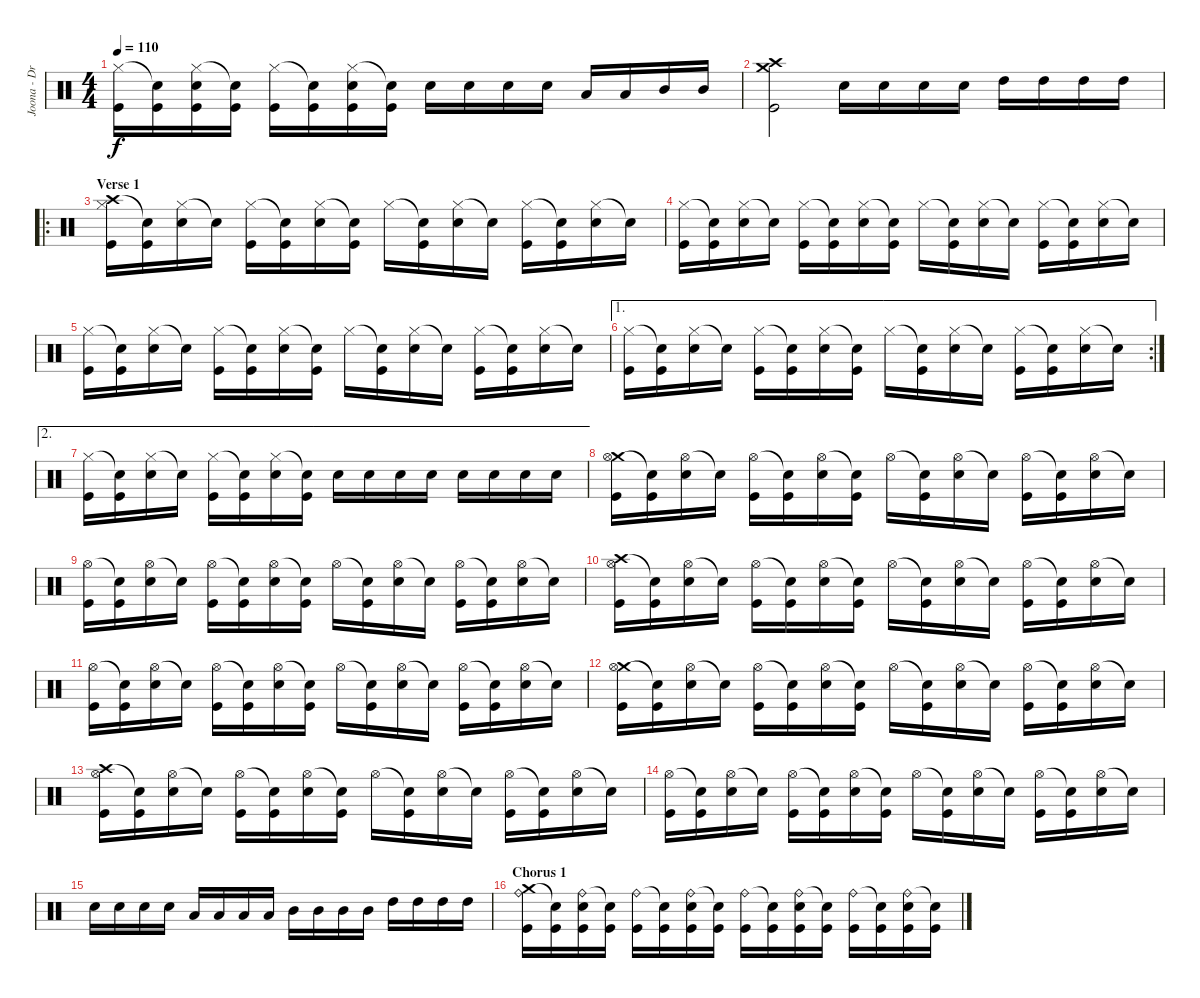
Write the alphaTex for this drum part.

\track ("Joona - Drums" "Joona - Dr") {instrument percussion}
\staff {score}
\articulation defaults
\ts (4 4)
\tempo 110
\clef neutral
\ks c
("Hi-Hat (closed)" "Kick (hit)").16{dy f} ("Snare (hit)"{t} "Kick (hit)").16 ("Hi-Hat (closed)" "Snare (hit) 2" "Kick (hit)").16 ("Snare (hit)"{t} "Kick (hit)").16 ("Hi-Hat (closed)" "Kick (hit)").16 ("Snare (hit)"{t} "Kick (hit)").16 ("Hi-Hat (closed)" "Snare (hit) 2" "Kick (hit)").16 ("Snare (hit)"{t} "Kick (hit)").16 "Snare (hit) 2".16 "Snare (hit) 2".16 "Snare (hit) 2".16 "Snare (hit) 2".16 "Low Tom (hit)".16 "Low Tom (hit)".16 "Mid Tom (hit)".16 "Mid Tom (hit)".16 |
("Crash medium (hit)" "Crash high (hit)" "Kick (hit)").2 "Snare (hit) 2".16 "Snare (hit) 2".16 "Snare (hit) 2".16 "Snare (hit) 2".16 "High Tom (hit)".16 "High Tom (hit)".16 "High Tom (hit)".16 "High Tom (hit)".16 |
\ro
\section ("" "Verse 1")
("Crash high (hit)" "Hi-Hat (closed)" "Kick (hit)").16 ("Snare (hit)"{t} "Kick (hit)").16 ("Hi-Hat (closed)" "Snare (hit) 2").16 "Snare (hit)"{t}.16 ("Hi-Hat (closed)" "Kick (hit)").16 ("Snare (hit)"{t} "Kick (hit)").16 ("Hi-Hat (closed)" "Snare (hit) 2").16 ("Snare (hit)"{t} "Kick (hit)").16 "Hi-Hat (closed)".16 ("Snare (hit)"{t} "Kick (hit)").16 ("Hi-Hat (closed)" "Snare (hit) 2").16 "Snare (hit)"{t}.16 ("Hi-Hat (closed)" "Kick (hit)").16 ("Snare (hit)"{t} "Kick (hit)").16 ("Hi-Hat (closed)" "Snare (hit) 2").16 "Snare (hit)"{t}.16 |
("Hi-Hat (closed)" "Kick (hit)").16 ("Snare (hit)"{t} "Kick (hit)").16 ("Hi-Hat (closed)" "Snare (hit) 2").16 "Snare (hit)"{t}.16 ("Hi-Hat (closed)" "Kick (hit)").16 ("Snare (hit)"{t} "Kick (hit)").16 ("Hi-Hat (closed)" "Snare (hit) 2").16 ("Snare (hit)"{t} "Kick (hit)").16 "Hi-Hat (closed)".16 ("Snare (hit)"{t} "Kick (hit)").16 ("Hi-Hat (closed)" "Snare (hit) 2").16 "Snare (hit)"{t}.16 ("Hi-Hat (closed)" "Kick (hit)").16 ("Snare (hit)"{t} "Kick (hit)").16 ("Hi-Hat (closed)" "Snare (hit) 2").16 "Snare (hit)"{t}.16 |
("Hi-Hat (closed)" "Kick (hit)").16 ("Snare (hit)"{t} "Kick (hit)").16 ("Hi-Hat (closed)" "Snare (hit) 2").16 "Snare (hit)"{t}.16 ("Hi-Hat (closed)" "Kick (hit)").16 ("Snare (hit)"{t} "Kick (hit)").16 ("Hi-Hat (closed)" "Snare (hit) 2").16 ("Snare (hit)"{t} "Kick (hit)").16 "Hi-Hat (closed)".16 ("Snare (hit)"{t} "Kick (hit)").16 ("Hi-Hat (closed)" "Snare (hit) 2").16 "Snare (hit)"{t}.16 ("Hi-Hat (closed)" "Kick (hit)").16 ("Snare (hit)"{t} "Kick (hit)").16 ("Hi-Hat (closed)" "Snare (hit) 2").16 "Snare (hit)"{t}.16 |
\ae 1
\rc 2
("Hi-Hat (closed)" "Kick (hit)").16 ("Snare (hit)"{t} "Kick (hit)").16 ("Hi-Hat (closed)" "Snare (hit) 2").16 "Snare (hit)"{t}.16 ("Hi-Hat (closed)" "Kick (hit)").16 ("Snare (hit)"{t} "Kick (hit)").16 ("Hi-Hat (closed)" "Snare (hit) 2").16 ("Snare (hit)"{t} "Kick (hit)").16 "Hi-Hat (closed)".16 ("Snare (hit)"{t} "Kick (hit)").16 ("Hi-Hat (closed)" "Snare (hit) 2").16 "Snare (hit)"{t}.16 ("Hi-Hat (closed)" "Kick (hit)").16 ("Snare (hit)"{t} "Kick (hit)").16 ("Hi-Hat (closed)" "Snare (hit) 2").16 "Snare (hit)"{t}.16 |
\ae 2
("Hi-Hat (closed)" "Kick (hit)").16 ("Snare (hit)"{t} "Kick (hit)").16 ("Hi-Hat (closed)" "Snare (hit) 2").16 "Snare (hit)"{t}.16 ("Hi-Hat (closed)" "Kick (hit)").16 ("Snare (hit)"{t} "Kick (hit)").16 ("Hi-Hat (closed)" "Snare (hit) 2").16 ("Snare (hit)"{t} "Kick (hit)").16 "Snare (hit) 2".16 "Snare (hit) 2".16 "Snare (hit) 2".16 "Snare (hit) 2".16 "Snare (hit) 2".16 "Snare (hit) 2".16 "Snare (hit) 2".16 "Snare (hit) 2".16 |
("Crash medium (hit)" "Hi-Hat (open)" "Kick (hit)").16 ("Snare (hit)"{t} "Kick (hit)").16 ("Hi-Hat (open)" "Snare (hit) 2").16 "Snare (hit)"{t}.16 ("Hi-Hat (open)" "Kick (hit)").16 ("Snare (hit)"{t} "Kick (hit)").16 ("Hi-Hat (open)" "Snare (hit) 2").16 ("Snare (hit)"{t} "Kick (hit)").16 "Hi-Hat (open)".16 ("Snare (hit)"{t} "Kick (hit)").16 ("Hi-Hat (open)" "Snare (hit) 2").16 "Snare (hit)"{t}.16 ("Hi-Hat (open)" "Kick (hit)").16 ("Snare (hit)"{t} "Kick (hit)").16 ("Hi-Hat (open)" "Snare (hit) 2").16 "Snare (hit)"{t}.16 |
("Hi-Hat (open)" "Kick (hit)").16 ("Snare (hit)"{t} "Kick (hit)").16 ("Hi-Hat (open)" "Snare (hit) 2").16 "Snare (hit)"{t}.16 ("Hi-Hat (open)" "Kick (hit)").16 ("Snare (hit)"{t} "Kick (hit)").16 ("Hi-Hat (open)" "Snare (hit) 2").16 ("Snare (hit)"{t} "Kick (hit)").16 "Hi-Hat (open)".16 ("Snare (hit)"{t} "Kick (hit)").16 ("Hi-Hat (open)" "Snare (hit) 2").16 "Snare (hit)"{t}.16 ("Hi-Hat (open)" "Kick (hit)").16 ("Snare (hit)"{t} "Kick (hit)").16 ("Hi-Hat (open)" "Snare (hit) 2").16 "Snare (hit)"{t}.16 |
("Crash high (hit)" "Hi-Hat (open)" "Kick (hit)").16 ("Snare (hit)"{t} "Kick (hit)").16 ("Hi-Hat (open)" "Snare (hit) 2").16 "Snare (hit)"{t}.16 ("Hi-Hat (open)" "Kick (hit)").16 ("Snare (hit)"{t} "Kick (hit)").16 ("Hi-Hat (open)" "Snare (hit) 2").16 ("Snare (hit)"{t} "Kick (hit)").16 "Hi-Hat (open)".16 ("Snare (hit)"{t} "Kick (hit)").16 ("Hi-Hat (open)" "Snare (hit) 2").16 "Snare (hit)"{t}.16 ("Hi-Hat (open)" "Kick (hit)").16 ("Snare (hit)"{t} "Kick (hit)").16 ("Hi-Hat (open)" "Snare (hit) 2").16 "Snare (hit)"{t}.16 |
("Hi-Hat (open)" "Kick (hit)").16 ("Snare (hit)"{t} "Kick (hit)").16 ("Hi-Hat (open)" "Snare (hit) 2").16 "Snare (hit)"{t}.16 ("Hi-Hat (open)" "Kick (hit)").16 ("Snare (hit)"{t} "Kick (hit)").16 ("Hi-Hat (open)" "Snare (hit) 2").16 ("Snare (hit)"{t} "Kick (hit)").16 "Hi-Hat (open)".16 ("Snare (hit)"{t} "Kick (hit)").16 ("Hi-Hat (open)" "Snare (hit) 2").16 "Snare (hit)"{t}.16 ("Hi-Hat (open)" "Kick (hit)").16 ("Snare (hit)"{t} "Kick (hit)").16 ("Hi-Hat (open)" "Snare (hit) 2").16 "Snare (hit)"{t}.16 |
("Crash medium (hit)" "Hi-Hat (open)" "Kick (hit)").16 ("Snare (hit)"{t} "Kick (hit)").16 ("Hi-Hat (open)" "Snare (hit) 2").16 "Snare (hit)"{t}.16 ("Hi-Hat (open)" "Kick (hit)").16 ("Snare (hit)"{t} "Kick (hit)").16 ("Hi-Hat (open)" "Snare (hit) 2").16 ("Snare (hit)"{t} "Kick (hit)").16 "Hi-Hat (open)".16 ("Snare (hit)"{t} "Kick (hit)").16 ("Hi-Hat (open)" "Snare (hit) 2").16 "Snare (hit)"{t}.16 ("Hi-Hat (open)" "Kick (hit)").16 ("Snare (hit)"{t} "Kick (hit)").16 ("Hi-Hat (open)" "Snare (hit) 2").16 "Snare (hit)"{t}.16 |
("Crash high (hit)" "Hi-Hat (open)" "Kick (hit)").16 ("Snare (hit)"{t} "Kick (hit)").16 ("Hi-Hat (open)" "Snare (hit) 2").16 "Snare (hit)"{t}.16 ("Hi-Hat (open)" "Kick (hit)").16 ("Snare (hit)"{t} "Kick (hit)").16 ("Hi-Hat (open)" "Snare (hit) 2").16 ("Snare (hit)"{t} "Kick (hit)").16 "Hi-Hat (open)".16 ("Snare (hit)"{t} "Kick (hit)").16 ("Hi-Hat (open)" "Snare (hit) 2").16 "Snare (hit)"{t}.16 ("Hi-Hat (open)" "Kick (hit)").16 ("Snare (hit)"{t} "Kick (hit)").16 ("Hi-Hat (open)" "Snare (hit) 2").16 "Snare (hit)"{t}.16 |
("Hi-Hat (open)" "Kick (hit)").16 ("Snare (hit)"{t} "Kick (hit)").16 ("Hi-Hat (open)" "Snare (hit) 2").16 "Snare (hit)"{t}.16 ("Hi-Hat (open)" "Kick (hit)").16 ("Snare (hit)"{t} "Kick (hit)").16 ("Hi-Hat (open)" "Snare (hit) 2").16 ("Snare (hit)"{t} "Kick (hit)").16 "Hi-Hat (open)".16 ("Snare (hit)"{t} "Kick (hit)").16 ("Hi-Hat (open)" "Snare (hit) 2").16 "Snare (hit)"{t}.16 ("Hi-Hat (open)" "Kick (hit)").16 ("Snare (hit)"{t} "Kick (hit)").16 ("Hi-Hat (open)" "Snare (hit) 2").16 "Snare (hit)"{t}.16 |
"Snare (hit) 2".16 "Snare (hit) 2".16 "Snare (hit) 2".16 "Snare (hit) 2".16 "Low Tom (hit)".16 "Low Tom (hit)".16 "Low Tom (hit)".16 "Low Tom (hit)".16 "Mid Tom (hit)".16 "Mid Tom (hit)".16 "Mid Tom (hit)".16 "Mid Tom (hit)".16 "High Tom (hit)".16 "High Tom (hit)".16 "High Tom (hit)".16 "High Tom (hit)".16 |
\section ("" "Chorus 1")
("Crash medium (hit)" "Ride (bell)" "Kick (hit)").16 ("Snare (hit)"{t} "Kick (hit)").16 ("Ride (bell)" "Snare (hit) 2" "Kick (hit)").16 ("Snare (hit)"{t} "Kick (hit)").16 ("Ride (bell)" "Kick (hit)").16 ("Snare (hit)"{t} "Kick (hit)").16 ("Ride (bell)" "Snare (hit) 2" "Kick (hit)").16 ("Snare (hit)"{t} "Kick (hit)").16 ("Ride (bell)" "Kick (hit)").16 ("Snare (hit)"{t} "Kick (hit)").16 ("Ride (bell)" "Snare (hit) 2" "Kick (hit)").16 ("Snare (hit)"{t} "Kick (hit)").16 ("Ride (bell)" "Kick (hit)").16 ("Snare (hit)"{t} "Kick (hit)").16 ("Ride (bell)" "Snare (hit) 2" "Kick (hit)").16 ("Snare (hit)"{t} "Kick (hit)").16
